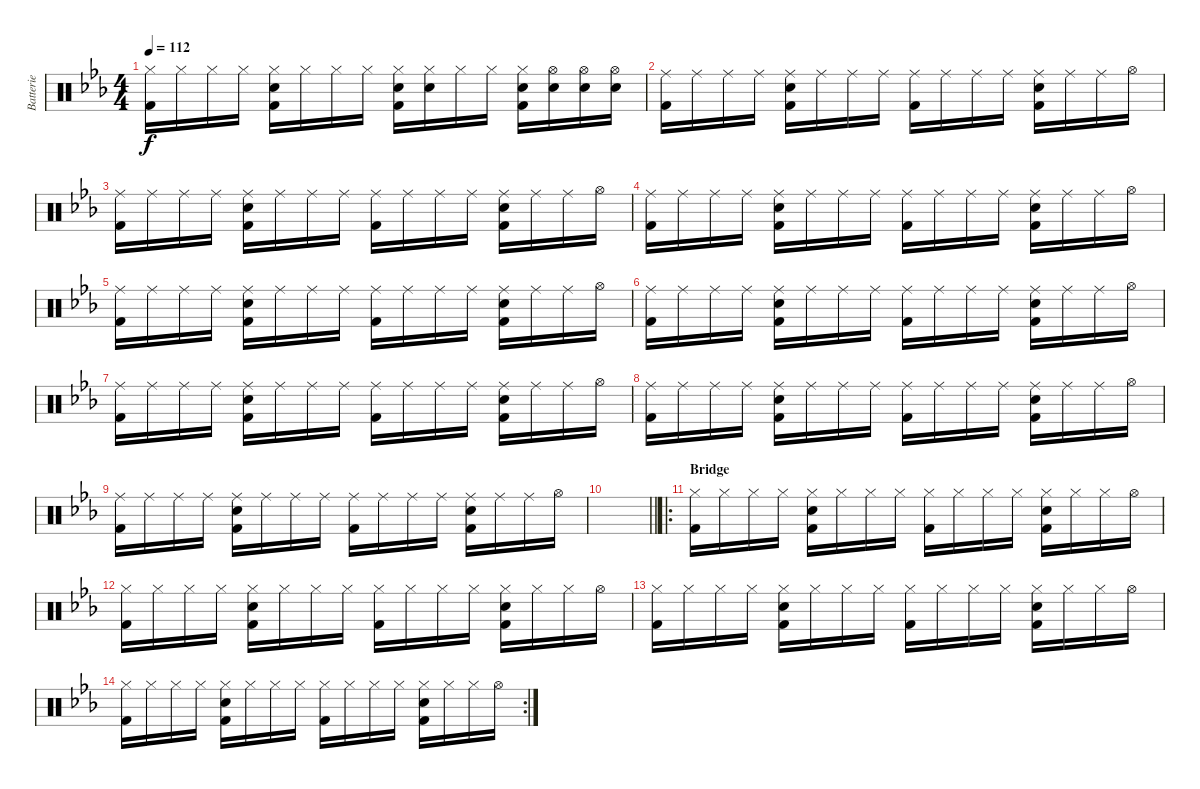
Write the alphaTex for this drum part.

\track ("Batterie" "Batterie") {instrument percussion}
\staff {score}
\articulation defaults
\ts (4 4)
\tempo 112
\clef neutral
\ks cminor
("Hi-Hat (closed)" "Kick (hit) 2").16{dy f} "Hi-Hat (closed)".16 "Hi-Hat (closed)".16 "Hi-Hat (closed)".16 ("Hi-Hat (closed)" "Electric Snare (hit)" "Kick (hit) 2").16 "Hi-Hat (closed)".16 "Hi-Hat (closed)".16 "Hi-Hat (closed)".16 ("Hi-Hat (closed)" "Electric Snare (hit)" "Kick (hit) 2").16 ("Hi-Hat (closed)" "Electric Snare (hit)").16 "Hi-Hat (closed)".16 "Hi-Hat (closed)".16 ("Hi-Hat (closed)" "Electric Snare (hit)" "Kick (hit) 2").16 ("Hi-Hat (open)" "Electric Snare (hit)").16 ("Hi-Hat (open)" "Electric Snare (hit)").16 ("Hi-Hat (open)" "Electric Snare (hit)").16 |
("Ride (middle)" "Kick (hit) 2").16 "Ride (middle)".16 "Ride (middle)".16 "Ride (middle)".16 ("Ride (middle)" "Electric Snare (hit)" "Kick (hit) 2").16 "Ride (middle)".16 "Ride (middle)".16 "Ride (middle)".16 ("Ride (middle)" "Kick (hit) 2").16 "Ride (middle)".16 "Ride (middle)".16 "Ride (middle)".16 ("Ride (middle)" "Electric Snare (hit)" "Kick (hit) 2").16 "Ride (middle)".16 "Ride (middle)".16 "Hi-Hat (open)".16 |
("Ride (middle)" "Kick (hit) 2").16 "Ride (middle)".16 "Ride (middle)".16 "Ride (middle)".16 ("Ride (middle)" "Electric Snare (hit)" "Kick (hit) 2").16 "Ride (middle)".16 "Ride (middle)".16 "Ride (middle)".16 ("Ride (middle)" "Kick (hit) 2").16 "Ride (middle)".16 "Ride (middle)".16 "Ride (middle)".16 ("Ride (middle)" "Electric Snare (hit)" "Kick (hit) 2").16 "Ride (middle)".16 "Ride (middle)".16 "Hi-Hat (open)".16 |
("Ride (middle)" "Kick (hit) 2").16 "Ride (middle)".16 "Ride (middle)".16 "Ride (middle)".16 ("Ride (middle)" "Electric Snare (hit)" "Kick (hit) 2").16 "Ride (middle)".16 "Ride (middle)".16 "Ride (middle)".16 ("Ride (middle)" "Kick (hit) 2").16 "Ride (middle)".16 "Ride (middle)".16 "Ride (middle)".16 ("Ride (middle)" "Electric Snare (hit)" "Kick (hit) 2").16 "Ride (middle)".16 "Ride (middle)".16 "Hi-Hat (open)".16 |
("Ride (middle)" "Kick (hit) 2").16 "Ride (middle)".16 "Ride (middle)".16 "Ride (middle)".16 ("Ride (middle)" "Electric Snare (hit)" "Kick (hit) 2").16 "Ride (middle)".16 "Ride (middle)".16 "Ride (middle)".16 ("Ride (middle)" "Kick (hit) 2").16 "Ride (middle)".16 "Ride (middle)".16 "Ride (middle)".16 ("Ride (middle)" "Electric Snare (hit)" "Kick (hit) 2").16 "Ride (middle)".16 "Ride (middle)".16 "Hi-Hat (open)".16 |
("Ride (middle)" "Kick (hit) 2").16 "Ride (middle)".16 "Ride (middle)".16 "Ride (middle)".16 ("Ride (middle)" "Electric Snare (hit)" "Kick (hit) 2").16 "Ride (middle)".16 "Ride (middle)".16 "Ride (middle)".16 ("Ride (middle)" "Kick (hit) 2").16 "Ride (middle)".16 "Ride (middle)".16 "Ride (middle)".16 ("Ride (middle)" "Electric Snare (hit)" "Kick (hit) 2").16 "Ride (middle)".16 "Ride (middle)".16 "Hi-Hat (open)".16 |
("Ride (middle)" "Kick (hit) 2").16 "Ride (middle)".16 "Ride (middle)".16 "Ride (middle)".16 ("Ride (middle)" "Electric Snare (hit)" "Kick (hit) 2").16 "Ride (middle)".16 "Ride (middle)".16 "Ride (middle)".16 ("Ride (middle)" "Kick (hit) 2").16 "Ride (middle)".16 "Ride (middle)".16 "Ride (middle)".16 ("Ride (middle)" "Electric Snare (hit)" "Kick (hit) 2").16 "Ride (middle)".16 "Ride (middle)".16 "Hi-Hat (open)".16 |
("Ride (middle)" "Kick (hit) 2").16 "Ride (middle)".16 "Ride (middle)".16 "Ride (middle)".16 ("Ride (middle)" "Electric Snare (hit)" "Kick (hit) 2").16 "Ride (middle)".16 "Ride (middle)".16 "Ride (middle)".16 ("Ride (middle)" "Kick (hit) 2").16 "Ride (middle)".16 "Ride (middle)".16 "Ride (middle)".16 ("Ride (middle)" "Electric Snare (hit)" "Kick (hit) 2").16 "Ride (middle)".16 "Ride (middle)".16 "Hi-Hat (open)".16 |
("Ride (middle)" "Kick (hit) 2").16 "Ride (middle)".16 "Ride (middle)".16 "Ride (middle)".16 ("Ride (middle)" "Electric Snare (hit)" "Kick (hit) 2").16 "Ride (middle)".16 "Ride (middle)".16 "Ride (middle)".16 ("Ride (middle)" "Kick (hit) 2").16 "Ride (middle)".16 "Ride (middle)".16 "Ride (middle)".16 ("Ride (middle)" "Electric Snare (hit)" "Kick (hit) 2").16 "Ride (middle)".16 "Ride (middle)".16 "Hi-Hat (open)".16 |
\barLineRight lightlight
|
\ro
\section ("" "Bridge")
("Hi-Hat (closed)" "Kick (hit) 2").16 "Hi-Hat (closed)".16 "Hi-Hat (closed)".16 "Hi-Hat (closed)".16 ("Hi-Hat (closed)" "Electric Snare (hit)" "Kick (hit) 2").16 "Hi-Hat (closed)".16 "Hi-Hat (closed)".16 "Hi-Hat (closed)".16 ("Hi-Hat (closed)" "Kick (hit) 2").16 "Hi-Hat (closed)".16 "Hi-Hat (closed)".16 "Hi-Hat (closed)".16 ("Hi-Hat (closed)" "Electric Snare (hit)" "Kick (hit) 2").16 "Hi-Hat (closed)".16 "Hi-Hat (closed)".16 "Hi-Hat (open)".16 |
("Hi-Hat (closed)" "Kick (hit) 2").16 "Hi-Hat (closed)".16 "Hi-Hat (closed)".16 "Hi-Hat (closed)".16 ("Hi-Hat (closed)" "Electric Snare (hit)" "Kick (hit) 2").16 "Hi-Hat (closed)".16 "Hi-Hat (closed)".16 "Hi-Hat (closed)".16 ("Hi-Hat (closed)" "Kick (hit) 2").16 "Hi-Hat (closed)".16 "Hi-Hat (closed)".16 "Hi-Hat (closed)".16 ("Hi-Hat (closed)" "Electric Snare (hit)" "Kick (hit) 2").16 "Hi-Hat (closed)".16 "Hi-Hat (closed)".16 "Hi-Hat (open)".16 |
("Hi-Hat (closed)" "Kick (hit) 2").16 "Hi-Hat (closed)".16 "Hi-Hat (closed)".16 "Hi-Hat (closed)".16 ("Hi-Hat (closed)" "Electric Snare (hit)" "Kick (hit) 2").16 "Hi-Hat (closed)".16 "Hi-Hat (closed)".16 "Hi-Hat (closed)".16 ("Hi-Hat (closed)" "Kick (hit) 2").16 "Hi-Hat (closed)".16 "Hi-Hat (closed)".16 "Hi-Hat (closed)".16 ("Hi-Hat (closed)" "Electric Snare (hit)" "Kick (hit) 2").16 "Hi-Hat (closed)".16 "Hi-Hat (closed)".16 "Hi-Hat (open)".16 |
\rc 2
("Hi-Hat (closed)" "Kick (hit) 2").16 "Hi-Hat (closed)".16 "Hi-Hat (closed)".16 "Hi-Hat (closed)".16 ("Hi-Hat (closed)" "Electric Snare (hit)" "Kick (hit) 2").16 "Hi-Hat (closed)".16 "Hi-Hat (closed)".16 "Hi-Hat (closed)".16 ("Hi-Hat (closed)" "Kick (hit) 2").16 "Hi-Hat (closed)".16 "Hi-Hat (closed)".16 "Hi-Hat (closed)".16 ("Hi-Hat (closed)" "Electric Snare (hit)" "Kick (hit) 2").16 "Hi-Hat (closed)".16 "Hi-Hat (closed)".16 "Hi-Hat (open)".16
